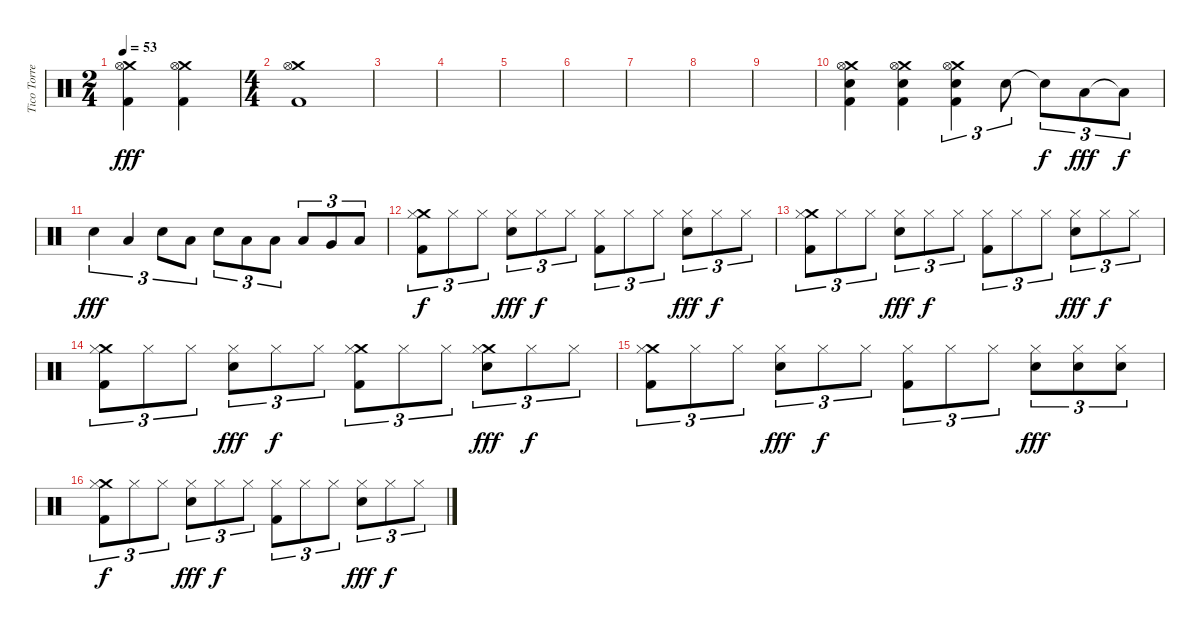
\track ("Tico Torres (Drums)" "Tico Torre") {instrument percussion}
\staff {score}
\articulation defaults
\ts (2 4)
\tempo 53
\clef neutral
\ks c
("Crash medium (hit)" "Kick (hit) 2" "Hi-Hat (open)").4{dy fff} ("Crash medium (hit)" "Kick (hit) 2" "Hi-Hat (open)").4 |
\ts (4 4)
("Crash medium (hit)" "Kick (hit) 2" "Hi-Hat (open)").1 |
|
|
|
|
|
|
|
("Crash medium (hit)" "Hi-Hat (open)" "Kick (hit) 2" "Snare (hit) 2").4 ("Crash medium (hit)" "Hi-Hat (open)" "Kick (hit) 2" "Snare (hit) 2").4 ("Crash medium (hit)" "Hi-Hat (open)" "Kick (hit) 2" "Snare (hit) 2").4{tu (3 2)} "Snare (hit) 2".8{tu (3 2)} "Snare (hit)"{t}.8{tu (3 2) dy f} "Low Tom (hit)".8{tu (3 2) dy fff} "Low Tom (hit)"{t}.8{tu (3 2) dy f} |
"Snare (hit) 2".4{tu (3 2) dy fff} "Low Tom (hit)".4{tu (3 2)} "Snare (hit) 2".8{tu (3 2)} "Low Tom (hit)".8{tu (3 2)} "Snare (hit) 2".8{tu (3 2)} "Low Tom (hit)".8{tu (3 2)} "Low Tom (hit)".8{tu (3 2)} "Low Tom (hit)".8{tu (3 2)} "Very Low Tom (hit)".8{tu (3 2)} "Low Floor Tom (hit)".8{tu (3 2)} |
("Crash medium (hit)" "Hi-Hat (closed)" "Kick (hit) 2").8{tu (3 2) dy f} "Hi-Hat (closed)".8{tu (3 2)} "Hi-Hat (closed)".8{tu (3 2)} ("Snare (hit) 2" "Hi-Hat (closed)").8{tu (3 2) dy fff} "Hi-Hat (closed)".8{tu (3 2) dy f} "Hi-Hat (closed)".8{tu (3 2)} ("Hi-Hat (closed)" "Kick (hit) 2").8{tu (3 2)} "Hi-Hat (closed)".8{tu (3 2)} "Hi-Hat (closed)".8{tu (3 2)} ("Snare (hit) 2" "Hi-Hat (closed)").8{tu (3 2) dy fff} "Hi-Hat (closed)".8{tu (3 2) dy f} "Hi-Hat (closed)".8{tu (3 2)} |
("Crash medium (hit)" "Hi-Hat (closed)" "Kick (hit) 2").8{tu (3 2)} "Hi-Hat (closed)".8{tu (3 2)} "Hi-Hat (closed)".8{tu (3 2)} ("Snare (hit) 2" "Hi-Hat (closed)").8{tu (3 2) dy fff} "Hi-Hat (closed)".8{tu (3 2) dy f} "Hi-Hat (closed)".8{tu (3 2)} ("Hi-Hat (closed)" "Kick (hit) 2").8{tu (3 2)} "Hi-Hat (closed)".8{tu (3 2)} "Hi-Hat (closed)".8{tu (3 2)} ("Snare (hit) 2" "Hi-Hat (closed)").8{tu (3 2) dy fff} "Hi-Hat (closed)".8{tu (3 2) dy f} "Hi-Hat (closed)".8{tu (3 2)} |
("Crash medium (hit)" "Hi-Hat (closed)" "Kick (hit) 2").8{tu (3 2)} "Hi-Hat (closed)".8{tu (3 2)} "Hi-Hat (closed)".8{tu (3 2)} ("Snare (hit) 2" "Hi-Hat (closed)").8{tu (3 2) dy fff} "Hi-Hat (closed)".8{tu (3 2) dy f} "Hi-Hat (closed)".8{tu (3 2)} ("Crash medium (hit)" "Hi-Hat (closed)" "Kick (hit) 2").8{tu (3 2)} "Hi-Hat (closed)".8{tu (3 2)} "Hi-Hat (closed)".8{tu (3 2)} ("Crash medium (hit)" "Snare (hit) 2" "Hi-Hat (closed)").8{tu (3 2) dy fff} "Hi-Hat (closed)".8{tu (3 2) dy f} "Hi-Hat (closed)".8{tu (3 2)} |
("Crash medium (hit)" "Hi-Hat (closed)" "Kick (hit) 2").8{tu (3 2)} "Hi-Hat (closed)".8{tu (3 2)} "Hi-Hat (closed)".8{tu (3 2)} ("Snare (hit) 2" "Hi-Hat (closed)").8{tu (3 2) dy fff} "Hi-Hat (closed)".8{tu (3 2) dy f} "Hi-Hat (closed)".8{tu (3 2)} ("Hi-Hat (closed)" "Kick (hit) 2").8{tu (3 2)} "Hi-Hat (closed)".8{tu (3 2)} "Hi-Hat (closed)".8{tu (3 2)} ("Snare (hit) 2" "Hi-Hat (closed)").8{tu (3 2) dy fff} ("Snare (hit) 2" "Hi-Hat (closed)").8{tu (3 2)} ("Snare (hit) 2" "Hi-Hat (closed)").8{tu (3 2)} |
("Crash medium (hit)" "Hi-Hat (closed)" "Kick (hit) 2").8{tu (3 2) dy f} "Hi-Hat (closed)".8{tu (3 2)} "Hi-Hat (closed)".8{tu (3 2)} ("Snare (hit) 2" "Hi-Hat (closed)").8{tu (3 2) dy fff} "Hi-Hat (closed)".8{tu (3 2) dy f} "Hi-Hat (closed)".8{tu (3 2)} ("Hi-Hat (closed)" "Kick (hit) 2").8{tu (3 2)} "Hi-Hat (closed)".8{tu (3 2)} "Hi-Hat (closed)".8{tu (3 2)} ("Snare (hit) 2" "Hi-Hat (closed)").8{tu (3 2) dy fff} "Hi-Hat (closed)".8{tu (3 2) dy f} "Hi-Hat (closed)".8{tu (3 2)}
